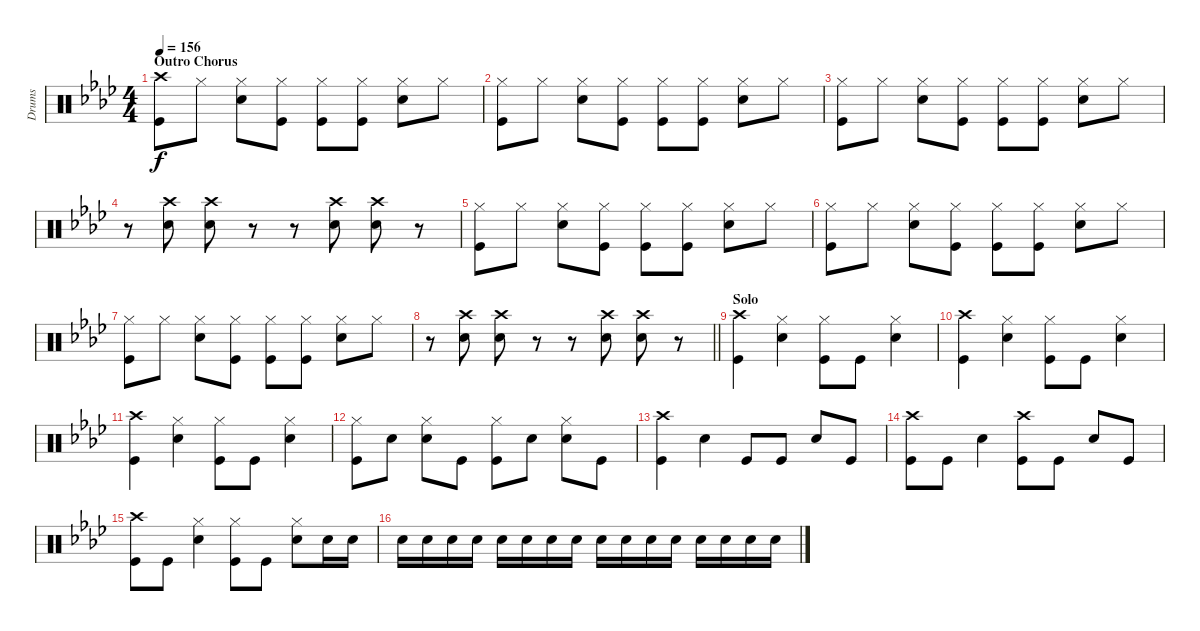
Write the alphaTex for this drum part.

\track ("Drums" "Drums") {instrument percussion}
\staff {score}
\articulation defaults
\ts (4 4)
\section ("" "Outro Chorus")
\tempo 156
\clef neutral
\ks ab
("Crash high (hit)" "Kick (hit)").8{dy f} "Hi-Hat (closed)".8 ("Hi-Hat (closed)" "Snare (hit) 2").8 ("Hi-Hat (closed)" "Kick (hit)").8 ("Hi-Hat (closed)" "Kick (hit)").8 ("Hi-Hat (closed)" "Kick (hit)").8 ("Hi-Hat (closed)" "Snare (hit) 2").8 "Hi-Hat (closed)".8 |
("Hi-Hat (closed)" "Kick (hit)").8 "Hi-Hat (closed)".8 ("Hi-Hat (closed)" "Snare (hit) 2").8 ("Hi-Hat (closed)" "Kick (hit)").8 ("Hi-Hat (closed)" "Kick (hit)").8 ("Hi-Hat (closed)" "Kick (hit)").8 ("Hi-Hat (closed)" "Snare (hit) 2").8 "Hi-Hat (closed)".8 |
("Hi-Hat (closed)" "Kick (hit)").8 "Hi-Hat (closed)".8 ("Hi-Hat (closed)" "Snare (hit) 2").8 ("Hi-Hat (closed)" "Kick (hit)").8 ("Hi-Hat (closed)" "Kick (hit)").8 ("Hi-Hat (closed)" "Kick (hit)").8 ("Hi-Hat (closed)" "Snare (hit) 2").8 "Hi-Hat (closed)".8 |
r.8 ("Crash high (hit)" "Snare (hit) 2").8 ("Crash high (hit)" "Snare (hit) 2").8 r.8 r.8 ("Crash high (hit)" "Snare (hit) 2").8 ("Crash high (hit)" "Snare (hit) 2").8 r.8 |
("Hi-Hat (closed)" "Kick (hit)").8 "Hi-Hat (closed)".8 ("Hi-Hat (closed)" "Snare (hit) 2").8 ("Hi-Hat (closed)" "Kick (hit)").8 ("Hi-Hat (closed)" "Kick (hit)").8 ("Hi-Hat (closed)" "Kick (hit)").8 ("Hi-Hat (closed)" "Snare (hit) 2").8 "Hi-Hat (closed)".8 |
("Hi-Hat (closed)" "Kick (hit)").8 "Hi-Hat (closed)".8 ("Hi-Hat (closed)" "Snare (hit) 2").8 ("Hi-Hat (closed)" "Kick (hit)").8 ("Hi-Hat (closed)" "Kick (hit)").8 ("Hi-Hat (closed)" "Kick (hit)").8 ("Hi-Hat (closed)" "Snare (hit) 2").8 "Hi-Hat (closed)".8 |
("Hi-Hat (closed)" "Kick (hit)").8 "Hi-Hat (closed)".8 ("Hi-Hat (closed)" "Snare (hit) 2").8 ("Hi-Hat (closed)" "Kick (hit)").8 ("Hi-Hat (closed)" "Kick (hit)").8 ("Hi-Hat (closed)" "Kick (hit)").8 ("Hi-Hat (closed)" "Snare (hit) 2").8 "Hi-Hat (closed)".8 |
\barLineRight lightlight
r.8 ("Crash high (hit)" "Snare (hit) 2").8 ("Crash high (hit)" "Snare (hit) 2").8 r.8 r.8 ("Crash high (hit)" "Snare (hit) 2").8 ("Crash high (hit)" "Snare (hit) 2").8 r.8 |
\section ("" "Solo")
("Crash high (hit)" "Kick (hit)").4 ("Hi-Hat (closed)" "Snare (hit) 2").4 ("Hi-Hat (closed)" "Kick (hit)").8 "Kick (hit)".8 ("Hi-Hat (closed)" "Snare (hit) 2").4 |
("Crash high (hit)" "Kick (hit)").4 ("Hi-Hat (closed)" "Snare (hit) 2").4 ("Hi-Hat (closed)" "Kick (hit)").8 "Kick (hit)".8 ("Hi-Hat (closed)" "Snare (hit) 2").4 |
("Crash high (hit)" "Kick (hit)").4 ("Hi-Hat (closed)" "Snare (hit) 2").4 ("Hi-Hat (closed)" "Kick (hit)").8 "Kick (hit)".8 ("Hi-Hat (closed)" "Snare (hit) 2").4 |
("Hi-Hat (closed)" "Kick (hit)").8 "Snare (hit) 2".8 ("Hi-Hat (closed)" "Snare (hit) 2").8 "Kick (hit)".8 ("Hi-Hat (closed)" "Kick (hit)").8 "Snare (hit) 2".8 ("Hi-Hat (closed)" "Snare (hit) 2").8 "Kick (hit)".8 |
("Crash high (hit)" "Kick (hit)").4 "Snare (hit) 2".4 "Kick (hit)".8 "Kick (hit)".8 "Snare (hit) 2".8 "Kick (hit)".8 |
("Crash high (hit)" "Kick (hit)").8 "Kick (hit)".8 "Snare (hit) 2".4 ("Crash high (hit)" "Kick (hit)").8 "Kick (hit)".8 "Snare (hit) 2".8 "Kick (hit)".8 |
("Crash high (hit)" "Kick (hit)").8 "Kick (hit)".8 ("Hi-Hat (closed)" "Snare (hit) 2").4 ("Hi-Hat (closed)" "Kick (hit)").8 "Kick (hit)".8 ("Hi-Hat (closed)" "Snare (hit) 2").8 "Snare (hit) 2".16 "Snare (hit) 2".16 |
"Snare (hit) 2".16 "Snare (hit) 2".16 "Snare (hit) 2".16 "Snare (hit) 2".16 "Snare (hit) 2".16 "Snare (hit) 2".16 "Snare (hit) 2".16 "Snare (hit) 2".16 "Snare (hit) 2".16 "Snare (hit) 2".16 "Snare (hit) 2".16 "Snare (hit) 2".16 "Snare (hit) 2".16 "Snare (hit) 2".16 "Snare (hit) 2".16 "Snare (hit) 2".16
